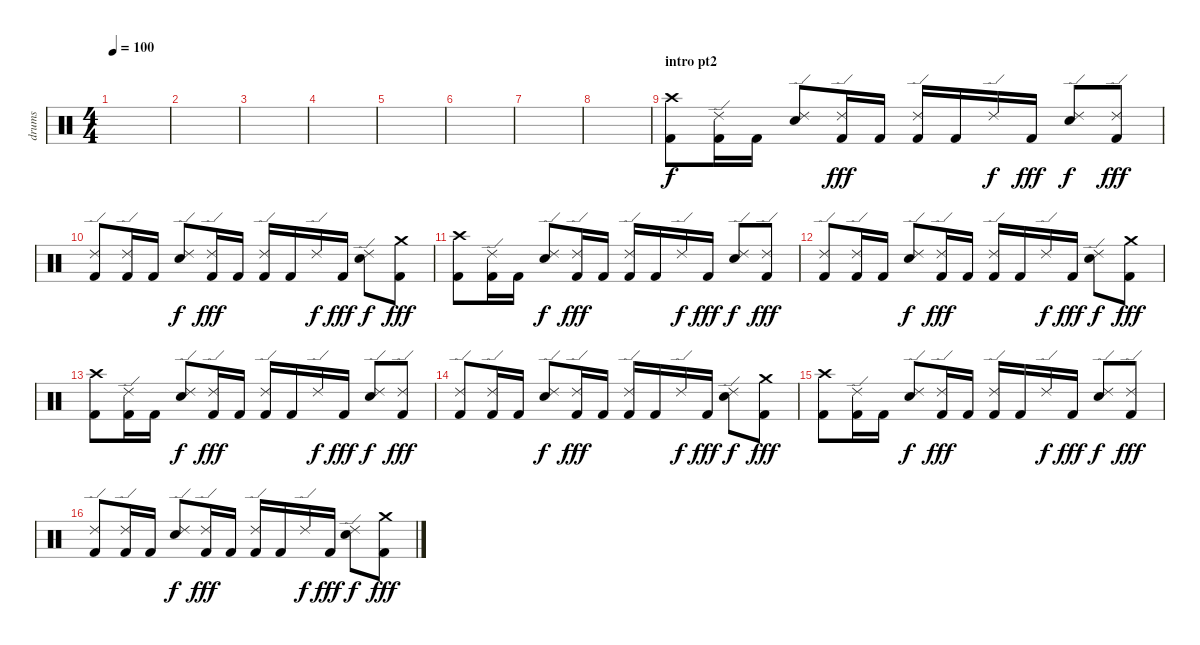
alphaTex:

\track ("drums" "drums") {instrument percussion}
\staff {score}
\articulation defaults
\ts (4 4)
\tempo 100
\clef neutral
\ks c
|
|
|
|
|
|
|
|
\section ("" "intro pt2")
("Crash high (hit)" "Kick (hit) 2").8 ("Ride (edge) 2" "Kick (hit) 2").16 "Kick (hit) 2".16 ("Ride (edge) 2" "Snare (hit) 2").8{dy f} ("Ride (edge) 2" "Kick (hit) 2").16{dy fff} "Kick (hit) 2".16 ("Ride (edge) 2" "Kick (hit) 2").16 "Kick (hit) 2".16 "Ride (edge) 2".16{dy f} "Kick (hit) 2".16{dy fff} ("Ride (edge) 2" "Snare (hit) 2").8{dy f} ("Ride (edge) 2" "Kick (hit) 2").8{dy fff} |
("Ride (edge) 2" "Kick (hit) 2").8 ("Ride (edge) 2" "Kick (hit) 2").16 "Kick (hit) 2".16 ("Ride (edge) 2" "Snare (hit) 2").8{dy f} ("Ride (edge) 2" "Kick (hit) 2").16{dy fff} "Kick (hit) 2".16 ("Ride (edge) 2" "Kick (hit) 2").16 "Kick (hit) 2".16 "Ride (edge) 2".16{dy f} "Kick (hit) 2".16{dy fff} ("Ride (edge) 2" "Snare (hit) 2").8{dy f} ("Crash medium (hit)" "Kick (hit) 2").8{dy fff} |
("Crash high (hit)" "Kick (hit) 2").8 ("Ride (edge) 2" "Kick (hit) 2").16 "Kick (hit) 2".16 ("Ride (edge) 2" "Snare (hit) 2").8{dy f} ("Ride (edge) 2" "Kick (hit) 2").16{dy fff} "Kick (hit) 2".16 ("Ride (edge) 2" "Kick (hit) 2").16 "Kick (hit) 2".16 "Ride (edge) 2".16{dy f} "Kick (hit) 2".16{dy fff} ("Ride (edge) 2" "Snare (hit) 2").8{dy f} ("Ride (edge) 2" "Kick (hit) 2").8{dy fff} |
("Ride (edge) 2" "Kick (hit) 2").8 ("Ride (edge) 2" "Kick (hit) 2").16 "Kick (hit) 2".16 ("Ride (edge) 2" "Snare (hit) 2").8{dy f} ("Ride (edge) 2" "Kick (hit) 2").16{dy fff} "Kick (hit) 2".16 ("Ride (edge) 2" "Kick (hit) 2").16 "Kick (hit) 2".16 "Ride (edge) 2".16{dy f} "Kick (hit) 2".16{dy fff} ("Ride (edge) 2" "Snare (hit) 2").8{dy f} ("Crash medium (hit)" "Kick (hit) 2").8{dy fff} |
("Crash high (hit)" "Kick (hit) 2").8 ("Ride (edge) 2" "Kick (hit) 2").16 "Kick (hit) 2".16 ("Ride (edge) 2" "Snare (hit) 2").8{dy f} ("Ride (edge) 2" "Kick (hit) 2").16{dy fff} "Kick (hit) 2".16 ("Ride (edge) 2" "Kick (hit) 2").16 "Kick (hit) 2".16 "Ride (edge) 2".16{dy f} "Kick (hit) 2".16{dy fff} ("Ride (edge) 2" "Snare (hit) 2").8{dy f} ("Ride (edge) 2" "Kick (hit) 2").8{dy fff} |
("Ride (edge) 2" "Kick (hit) 2").8 ("Ride (edge) 2" "Kick (hit) 2").16 "Kick (hit) 2".16 ("Ride (edge) 2" "Snare (hit) 2").8{dy f} ("Ride (edge) 2" "Kick (hit) 2").16{dy fff} "Kick (hit) 2".16 ("Ride (edge) 2" "Kick (hit) 2").16 "Kick (hit) 2".16 "Ride (edge) 2".16{dy f} "Kick (hit) 2".16{dy fff} ("Ride (edge) 2" "Snare (hit) 2").8{dy f} ("Crash medium (hit)" "Kick (hit) 2").8{dy fff} |
("Crash high (hit)" "Kick (hit) 2").8 ("Ride (edge) 2" "Kick (hit) 2").16 "Kick (hit) 2".16 ("Ride (edge) 2" "Snare (hit) 2").8{dy f} ("Ride (edge) 2" "Kick (hit) 2").16{dy fff} "Kick (hit) 2".16 ("Ride (edge) 2" "Kick (hit) 2").16 "Kick (hit) 2".16 "Ride (edge) 2".16{dy f} "Kick (hit) 2".16{dy fff} ("Ride (edge) 2" "Snare (hit) 2").8{dy f} ("Ride (edge) 2" "Kick (hit) 2").8{dy fff} |
("Ride (edge) 2" "Kick (hit) 2").8 ("Ride (edge) 2" "Kick (hit) 2").16 "Kick (hit) 2".16 ("Ride (edge) 2" "Snare (hit) 2").8{dy f} ("Ride (edge) 2" "Kick (hit) 2").16{dy fff} "Kick (hit) 2".16 ("Ride (edge) 2" "Kick (hit) 2").16 "Kick (hit) 2".16 "Ride (edge) 2".16{dy f} "Kick (hit) 2".16{dy fff} ("Ride (edge) 2" "Snare (hit) 2").8{dy f} ("Crash medium (hit)" "Kick (hit) 2").8{dy fff}
